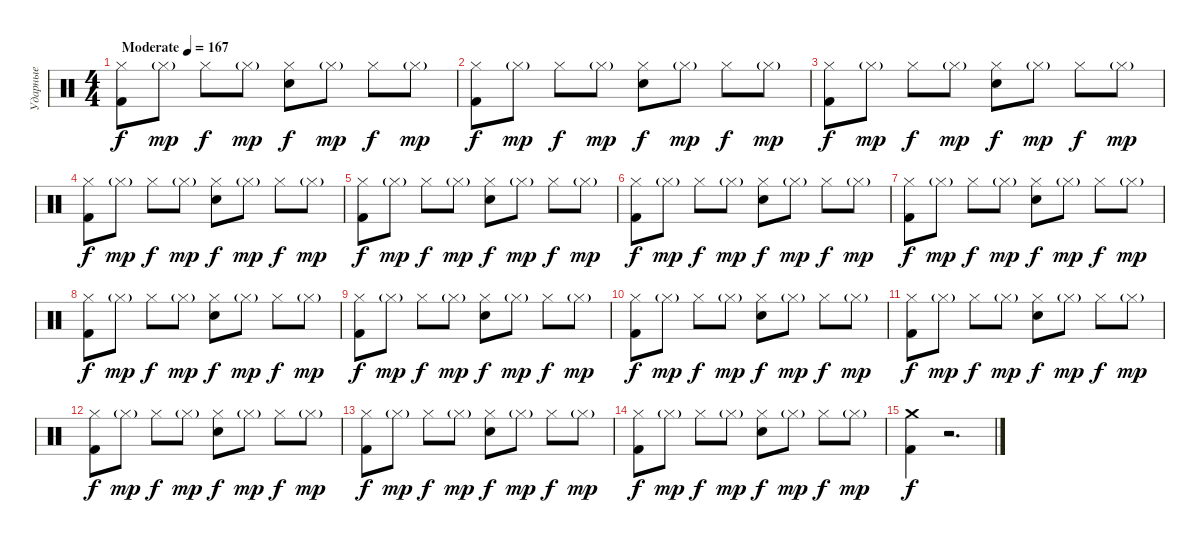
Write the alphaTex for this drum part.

\track ("Ударные" "Ударные") {instrument percussion}
\staff {score}
\articulation defaults
\ts (4 4)
\tempo (167 "Moderate")
\clef neutral
\ks c
("Hi-Hat (closed)" "Kick (hit) 2").8{dy f} "Hi-Hat (closed)"{g}.8{dy mp} "Hi-Hat (closed)".8{dy f} "Hi-Hat (closed)"{g}.8{dy mp} ("Hi-Hat (closed)" "Electric Snare (hit)").8{dy f} "Hi-Hat (closed)"{g}.8{dy mp} "Hi-Hat (closed)".8{dy f} "Hi-Hat (closed)"{g}.8{dy mp} |
("Hi-Hat (closed)" "Kick (hit) 2").8{dy f} "Hi-Hat (closed)"{g}.8{dy mp} "Hi-Hat (closed)".8{dy f} "Hi-Hat (closed)"{g}.8{dy mp} ("Hi-Hat (closed)" "Electric Snare (hit)").8{dy f} "Hi-Hat (closed)"{g}.8{dy mp} "Hi-Hat (closed)".8{dy f} "Hi-Hat (closed)"{g}.8{dy mp} |
("Hi-Hat (closed)" "Kick (hit) 2").8{dy f} "Hi-Hat (closed)"{g}.8{dy mp} "Hi-Hat (closed)".8{dy f} "Hi-Hat (closed)"{g}.8{dy mp} ("Hi-Hat (closed)" "Electric Snare (hit)").8{dy f} "Hi-Hat (closed)"{g}.8{dy mp} "Hi-Hat (closed)".8{dy f} "Hi-Hat (closed)"{g}.8{dy mp} |
("Hi-Hat (closed)" "Kick (hit) 2").8{dy f} "Hi-Hat (closed)"{g}.8{dy mp} "Hi-Hat (closed)".8{dy f} "Hi-Hat (closed)"{g}.8{dy mp} ("Hi-Hat (closed)" "Electric Snare (hit)").8{dy f} "Hi-Hat (closed)"{g}.8{dy mp} "Hi-Hat (closed)".8{dy f} "Hi-Hat (closed)"{g}.8{dy mp} |
("Hi-Hat (closed)" "Kick (hit) 2").8{dy f} "Hi-Hat (closed)"{g}.8{dy mp} "Hi-Hat (closed)".8{dy f} "Hi-Hat (closed)"{g}.8{dy mp} ("Hi-Hat (closed)" "Electric Snare (hit)").8{dy f} "Hi-Hat (closed)"{g}.8{dy mp} "Hi-Hat (closed)".8{dy f} "Hi-Hat (closed)"{g}.8{dy mp} |
("Hi-Hat (closed)" "Kick (hit) 2").8{dy f} "Hi-Hat (closed)"{g}.8{dy mp} "Hi-Hat (closed)".8{dy f} "Hi-Hat (closed)"{g}.8{dy mp} ("Hi-Hat (closed)" "Electric Snare (hit)").8{dy f} "Hi-Hat (closed)"{g}.8{dy mp} "Hi-Hat (closed)".8{dy f} "Hi-Hat (closed)"{g}.8{dy mp} |
("Hi-Hat (closed)" "Kick (hit) 2").8{dy f} "Hi-Hat (closed)"{g}.8{dy mp} "Hi-Hat (closed)".8{dy f} "Hi-Hat (closed)"{g}.8{dy mp} ("Hi-Hat (closed)" "Electric Snare (hit)").8{dy f} "Hi-Hat (closed)"{g}.8{dy mp} "Hi-Hat (closed)".8{dy f} "Hi-Hat (closed)"{g}.8{dy mp} |
("Hi-Hat (closed)" "Kick (hit) 2").8{dy f} "Hi-Hat (closed)"{g}.8{dy mp} "Hi-Hat (closed)".8{dy f} "Hi-Hat (closed)"{g}.8{dy mp} ("Hi-Hat (closed)" "Electric Snare (hit)").8{dy f} "Hi-Hat (closed)"{g}.8{dy mp} "Hi-Hat (closed)".8{dy f} "Hi-Hat (closed)"{g}.8{dy mp} |
("Hi-Hat (closed)" "Kick (hit) 2").8{dy f} "Hi-Hat (closed)"{g}.8{dy mp} "Hi-Hat (closed)".8{dy f} "Hi-Hat (closed)"{g}.8{dy mp} ("Hi-Hat (closed)" "Electric Snare (hit)").8{dy f} "Hi-Hat (closed)"{g}.8{dy mp} "Hi-Hat (closed)".8{dy f} "Hi-Hat (closed)"{g}.8{dy mp} |
("Hi-Hat (closed)" "Kick (hit) 2").8{dy f} "Hi-Hat (closed)"{g}.8{dy mp} "Hi-Hat (closed)".8{dy f} "Hi-Hat (closed)"{g}.8{dy mp} ("Hi-Hat (closed)" "Electric Snare (hit)").8{dy f} "Hi-Hat (closed)"{g}.8{dy mp} "Hi-Hat (closed)".8{dy f} "Hi-Hat (closed)"{g}.8{dy mp} |
("Hi-Hat (closed)" "Kick (hit) 2").8{dy f} "Hi-Hat (closed)"{g}.8{dy mp} "Hi-Hat (closed)".8{dy f} "Hi-Hat (closed)"{g}.8{dy mp} ("Hi-Hat (closed)" "Electric Snare (hit)").8{dy f} "Hi-Hat (closed)"{g}.8{dy mp} "Hi-Hat (closed)".8{dy f} "Hi-Hat (closed)"{g}.8{dy mp} |
("Hi-Hat (closed)" "Kick (hit) 2").8{dy f} "Hi-Hat (closed)"{g}.8{dy mp} "Hi-Hat (closed)".8{dy f} "Hi-Hat (closed)"{g}.8{dy mp} ("Hi-Hat (closed)" "Electric Snare (hit)").8{dy f} "Hi-Hat (closed)"{g}.8{dy mp} "Hi-Hat (closed)".8{dy f} "Hi-Hat (closed)"{g}.8{dy mp} |
("Hi-Hat (closed)" "Kick (hit) 2").8{dy f} "Hi-Hat (closed)"{g}.8{dy mp} "Hi-Hat (closed)".8{dy f} "Hi-Hat (closed)"{g}.8{dy mp} ("Hi-Hat (closed)" "Electric Snare (hit)").8{dy f} "Hi-Hat (closed)"{g}.8{dy mp} "Hi-Hat (closed)".8{dy f} "Hi-Hat (closed)"{g}.8{dy mp} |
("Hi-Hat (closed)" "Kick (hit) 2").8{dy f} "Hi-Hat (closed)"{g}.8{dy mp} "Hi-Hat (closed)".8{dy f} "Hi-Hat (closed)"{g}.8{dy mp} ("Hi-Hat (closed)" "Electric Snare (hit)").8{dy f} "Hi-Hat (closed)"{g}.8{dy mp} "Hi-Hat (closed)".8{dy f} "Hi-Hat (closed)"{g}.8{dy mp} |
("Crash medium (hit)" "Kick (hit) 2").4{dy f} r.2{d}
